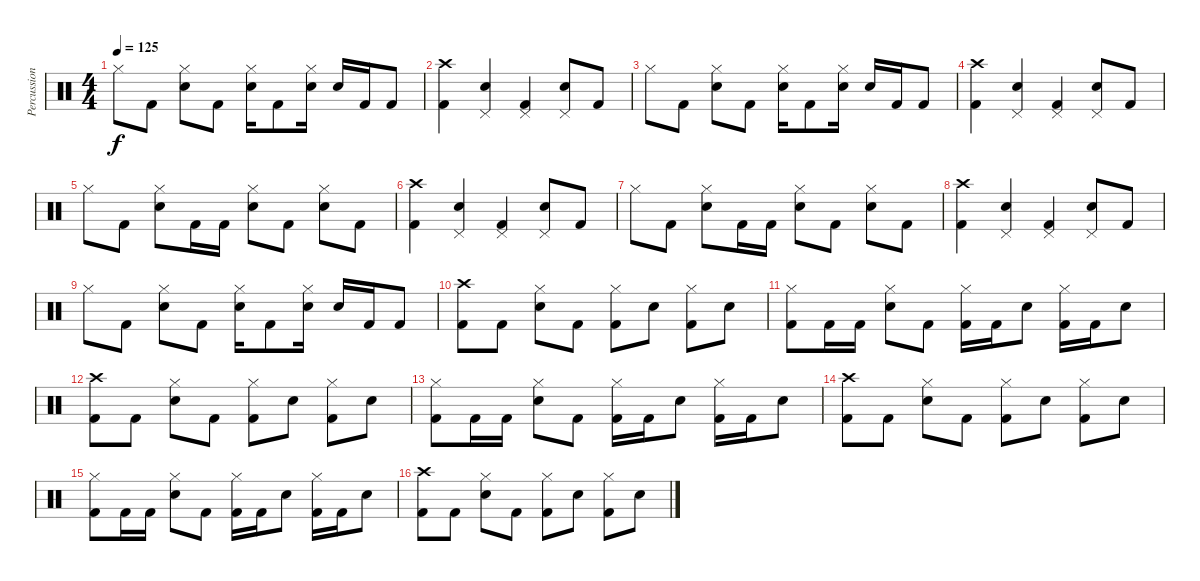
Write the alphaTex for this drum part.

\track ("Percussioni" "Percussion") {instrument percussion}
\staff {score}
\articulation defaults
\ts (4 4)
\tempo 125
\clef neutral
\ks c "Hi-Hat (closed)".8{dy f} "Kick (hit) 2".8
("Hi-Hat (closed)" "Snare (hit) 2").8 "Kick (hit) 2".8 ("Hi-Hat (closed)" "Snare (hit) 2").16 "Kick (hit) 2".8 ("Hi-Hat (closed)" "Snare (hit) 2").16 "Snare (hit) 2".16 "Kick (hit) 2".16 "Kick (hit) 2".8 |
("Crash high (hit)" "Kick (hit) 2").4 ("Pedal Hi-Hat (hit)" "Snare (hit) 2").4 ("Pedal Hi-Hat (hit)" "Kick (hit) 2").4 ("Pedal Hi-Hat (hit)" "Snare (hit) 2").8 "Kick (hit) 2".8 |
"Hi-Hat (closed)".8 "Kick (hit) 2".8 ("Hi-Hat (closed)" "Snare (hit) 2").8 "Kick (hit) 2".8 ("Hi-Hat (closed)" "Snare (hit) 2").16 "Kick (hit) 2".8 ("Hi-Hat (closed)" "Snare (hit) 2").16 "Snare (hit) 2".16 "Kick (hit) 2".16 "Kick (hit) 2".8 |
("Crash high (hit)" "Kick (hit) 2").4 ("Pedal Hi-Hat (hit)" "Snare (hit) 2").4 ("Pedal Hi-Hat (hit)" "Kick (hit) 2").4 ("Pedal Hi-Hat (hit)" "Snare (hit) 2").8 "Kick (hit) 2".8 |
"Hi-Hat (closed)".8 "Kick (hit) 2".8 ("Hi-Hat (closed)" "Snare (hit) 2").8 "Kick (hit) 2".16 "Kick (hit) 2".16 ("Hi-Hat (closed)" "Snare (hit) 2").8 "Kick (hit) 2".8 ("Hi-Hat (closed)" "Snare (hit) 2").8 "Kick (hit) 2".8 |
("Crash high (hit)" "Kick (hit) 2").4 ("Pedal Hi-Hat (hit)" "Snare (hit) 2").4 ("Pedal Hi-Hat (hit)" "Kick (hit) 2").4 ("Pedal Hi-Hat (hit)" "Snare (hit) 2").8 "Kick (hit) 2".8 |
"Hi-Hat (closed)".8 "Kick (hit) 2".8 ("Hi-Hat (closed)" "Snare (hit) 2").8 "Kick (hit) 2".16 "Kick (hit) 2".16 ("Hi-Hat (closed)" "Snare (hit) 2").8 "Kick (hit) 2".8 ("Hi-Hat (closed)" "Snare (hit) 2").8 "Kick (hit) 2".8 |
("Crash high (hit)" "Kick (hit) 2").4 ("Pedal Hi-Hat (hit)" "Snare (hit) 2").4 ("Pedal Hi-Hat (hit)" "Kick (hit) 2").4 ("Pedal Hi-Hat (hit)" "Snare (hit) 2").8 "Kick (hit) 2".8 |
"Hi-Hat (closed)".8 "Kick (hit) 2".8 ("Hi-Hat (closed)" "Snare (hit) 2").8 "Kick (hit) 2".8 ("Hi-Hat (closed)" "Snare (hit) 2").16 "Kick (hit) 2".8 ("Hi-Hat (closed)" "Snare (hit) 2").16 "Snare (hit) 2".16 "Kick (hit) 2".16 "Kick (hit) 2".8 |
("Crash high (hit)" "Kick (hit) 2").8 "Kick (hit) 2".8 ("Hi-Hat (closed)" "Snare (hit) 2").8 "Kick (hit) 2".8 ("Hi-Hat (closed)" "Kick (hit) 2").8 "Snare (hit) 2".8 ("Hi-Hat (closed)" "Kick (hit) 2").8 "Snare (hit) 2".8 |
("Hi-Hat (closed)" "Kick (hit) 2").8 "Kick (hit) 2".16 "Kick (hit) 2".16 ("Hi-Hat (closed)" "Snare (hit) 2").8 "Kick (hit) 2".8 ("Hi-Hat (closed)" "Kick (hit) 2").16 "Kick (hit) 2".16 "Snare (hit) 2".8 ("Hi-Hat (closed)" "Kick (hit) 2").16 "Kick (hit) 2".16 "Snare (hit) 2".8 |
("Crash high (hit)" "Kick (hit) 2").8 "Kick (hit) 2".8 ("Hi-Hat (closed)" "Snare (hit) 2").8 "Kick (hit) 2".8 ("Hi-Hat (closed)" "Kick (hit) 2").8 "Snare (hit) 2".8 ("Hi-Hat (closed)" "Kick (hit) 2").8 "Snare (hit) 2".8 |
("Hi-Hat (closed)" "Kick (hit) 2").8 "Kick (hit) 2".16 "Kick (hit) 2".16 ("Hi-Hat (closed)" "Snare (hit) 2").8 "Kick (hit) 2".8 ("Hi-Hat (closed)" "Kick (hit) 2").16 "Kick (hit) 2".16 "Snare (hit) 2".8 ("Hi-Hat (closed)" "Kick (hit) 2").16 "Kick (hit) 2".16 "Snare (hit) 2".8 |
("Crash high (hit)" "Kick (hit) 2").8 "Kick (hit) 2".8 ("Hi-Hat (closed)" "Snare (hit) 2").8 "Kick (hit) 2".8 ("Hi-Hat (closed)" "Kick (hit) 2").8 "Snare (hit) 2".8 ("Hi-Hat (closed)" "Kick (hit) 2").8 "Snare (hit) 2".8 |
("Hi-Hat (closed)" "Kick (hit) 2").8 "Kick (hit) 2".16 "Kick (hit) 2".16 ("Hi-Hat (closed)" "Snare (hit) 2").8 "Kick (hit) 2".8 ("Hi-Hat (closed)" "Kick (hit) 2").16 "Kick (hit) 2".16 "Snare (hit) 2".8 ("Hi-Hat (closed)" "Kick (hit) 2").16 "Kick (hit) 2".16 "Snare (hit) 2".8 |
("Crash high (hit)" "Kick (hit) 2").8 "Kick (hit) 2".8 ("Hi-Hat (closed)" "Snare (hit) 2").8 "Kick (hit) 2".8 ("Hi-Hat (closed)" "Kick (hit) 2").8 "Snare (hit) 2".8 ("Hi-Hat (closed)" "Kick (hit) 2").8 "Snare (hit) 2".8
